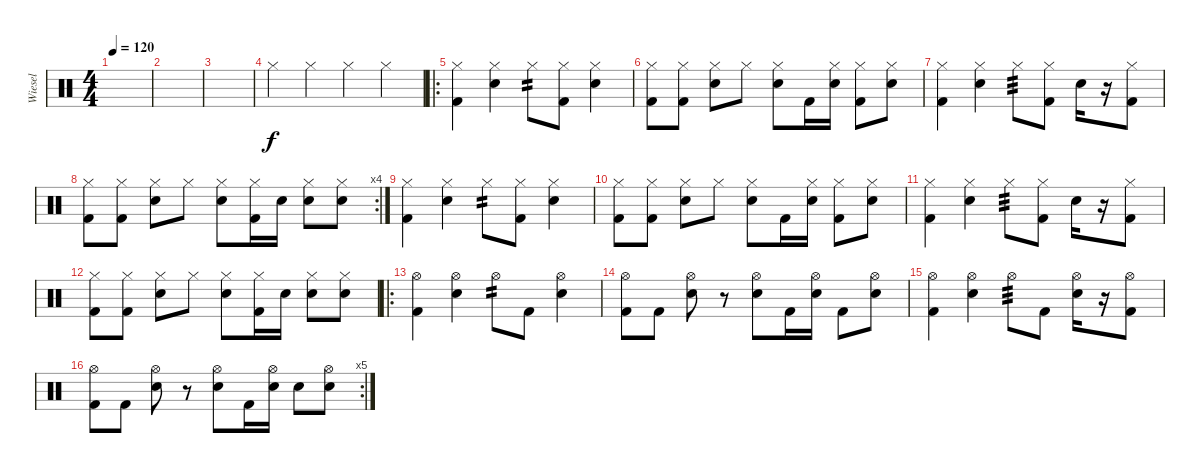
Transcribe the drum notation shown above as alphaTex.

\track ("Wiesel" "Wiesel") {instrument percussion}
\staff {score}
\articulation defaults
\ts (4 4)
\tempo 120
\clef neutral
\ks c
|
|
|
"Hi-Hat (closed)".4 "Hi-Hat (closed)".4 "Hi-Hat (closed)".4 "Hi-Hat (closed)".4 |
\ro
("Kick (hit) 2" "Hi-Hat (closed)").4 ("Snare (hit) 2" "Hi-Hat (closed)").4 "Hi-Hat (closed)".8{tp 2} ("Kick (hit) 2" "Hi-Hat (closed)").8 ("Snare (hit) 2" "Hi-Hat (closed)").4 |
("Kick (hit) 2" "Hi-Hat (closed)").8 ("Kick (hit) 2" "Hi-Hat (closed)").8 ("Snare (hit) 2" "Hi-Hat (closed)").8 "Hi-Hat (closed)".8 ("Snare (hit) 2" "Hi-Hat (closed)").8 "Kick (hit) 2".16 ("Snare (hit) 2" "Hi-Hat (closed)").16 ("Kick (hit) 2" "Hi-Hat (closed)").8 ("Snare (hit) 2" "Hi-Hat (closed)").8 |
("Kick (hit) 2" "Hi-Hat (closed)").4 ("Snare (hit) 2" "Hi-Hat (closed)").4 "Hi-Hat (closed)".8{tp 3} ("Kick (hit) 2" "Hi-Hat (closed)").8 "Snare (hit) 2".16 r.16 ("Kick (hit) 2" "Hi-Hat (closed)").8 |
\rc 4
("Kick (hit) 2" "Hi-Hat (closed)").8 ("Kick (hit) 2" "Hi-Hat (closed)").8 ("Snare (hit) 2" "Hi-Hat (closed)").8 "Hi-Hat (closed)".8 ("Snare (hit) 2" "Hi-Hat (closed)").8 ("Kick (hit) 2" "Hi-Hat (closed)").16 "Snare (hit) 2".16 ("Snare (hit) 2" "Hi-Hat (closed)").8 ("Snare (hit) 2" "Hi-Hat (closed)").8 |
("Kick (hit) 2" "Hi-Hat (closed)").4 ("Snare (hit) 2" "Hi-Hat (closed)").4 "Hi-Hat (closed)".8{tp 2} ("Kick (hit) 2" "Hi-Hat (closed)").8 ("Snare (hit) 2" "Hi-Hat (closed)").4 |
("Kick (hit) 2" "Hi-Hat (closed)").8 ("Kick (hit) 2" "Hi-Hat (closed)").8 ("Snare (hit) 2" "Hi-Hat (closed)").8 "Hi-Hat (closed)".8 ("Snare (hit) 2" "Hi-Hat (closed)").8 "Kick (hit) 2".16 ("Snare (hit) 2" "Hi-Hat (closed)").16 ("Kick (hit) 2" "Hi-Hat (closed)").8 ("Snare (hit) 2" "Hi-Hat (closed)").8 |
("Kick (hit) 2" "Hi-Hat (closed)").4 ("Snare (hit) 2" "Hi-Hat (closed)").4 "Hi-Hat (closed)".8{tp 3} ("Kick (hit) 2" "Hi-Hat (closed)").8 "Snare (hit) 2".16 r.16 ("Kick (hit) 2" "Hi-Hat (closed)").8 |
("Kick (hit) 2" "Hi-Hat (closed)").8 ("Kick (hit) 2" "Hi-Hat (closed)").8 ("Snare (hit) 2" "Hi-Hat (closed)").8 "Hi-Hat (closed)".8 ("Snare (hit) 2" "Hi-Hat (closed)").8 ("Kick (hit) 2" "Hi-Hat (closed)").16 "Snare (hit) 2".16 ("Snare (hit) 2" "Hi-Hat (closed)").8 ("Snare (hit) 2" "Hi-Hat (closed)").8 |
\ro
("Kick (hit) 2" "Hi-Hat (open)").4 ("Snare (hit) 2" "Hi-Hat (open)").4 "Hi-Hat (open)".8{tp 2} "Kick (hit) 2".8 ("Snare (hit) 2" "Hi-Hat (open)").4 |
("Kick (hit) 2" "Hi-Hat (open)").8 "Kick (hit) 2".8 ("Snare (hit) 2" "Hi-Hat (open)").8 r.8 ("Snare (hit) 2" "Hi-Hat (open)").8 "Kick (hit) 2".16 ("Snare (hit) 2" "Hi-Hat (open)").16 "Kick (hit) 2".8 ("Snare (hit) 2" "Hi-Hat (open)").8 |
("Kick (hit) 2" "Hi-Hat (open)").4 ("Snare (hit) 2" "Hi-Hat (open)").4 "Hi-Hat (open)".8{tp 3} "Kick (hit) 2".8 ("Snare (hit) 2" "Hi-Hat (open)").16 r.16 ("Kick (hit) 2" "Hi-Hat (open)").8 |
\rc 5
("Kick (hit) 2" "Hi-Hat (open)").8 "Kick (hit) 2".8 ("Snare (hit) 2" "Hi-Hat (open)").8 r.8 ("Snare (hit) 2" "Hi-Hat (open)").8 "Kick (hit) 2".16 ("Snare (hit) 2" "Hi-Hat (open)").16 "Snare (hit) 2".8 ("Snare (hit) 2" "Hi-Hat (open)").8
